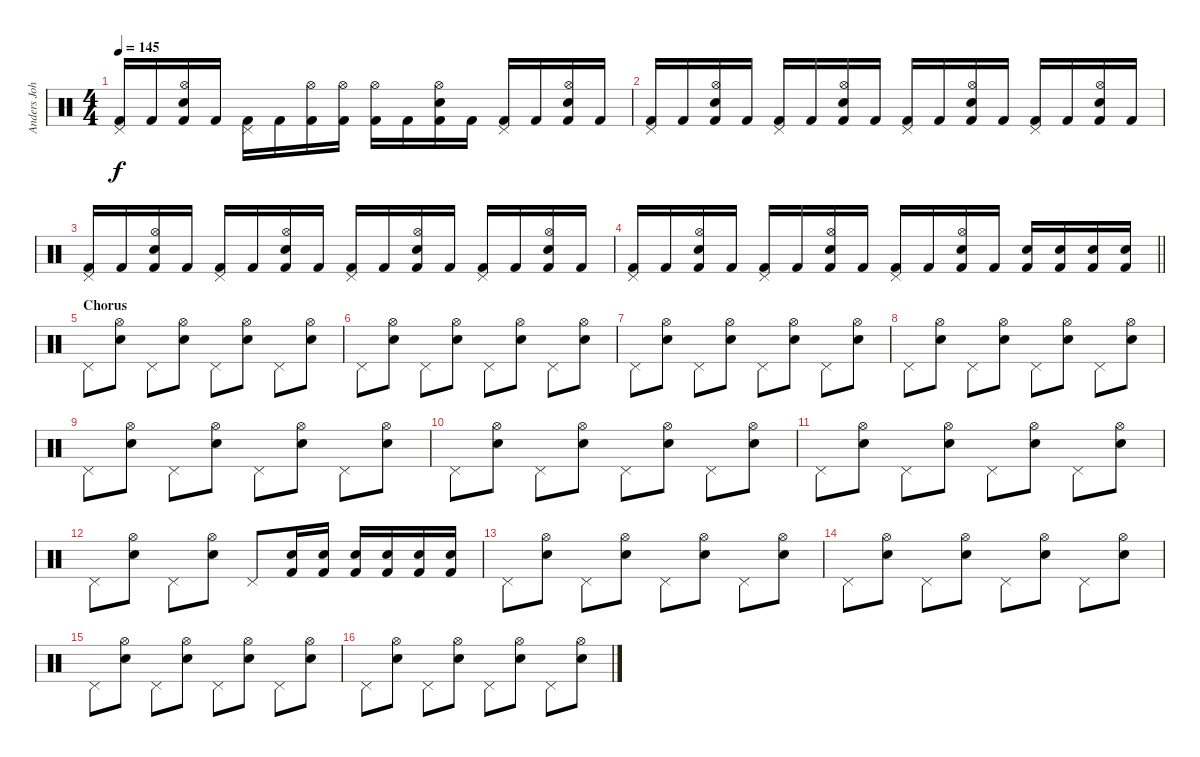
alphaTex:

\track ("Anders Johansson (Drums)" "Anders Joh") {instrument percussion}
\staff {score}
\articulation defaults
\ts (4 4)
\tempo 145
\clef neutral
\ks c
("Kick (hit) 2" "Pedal Hi-Hat (hit)").16{dy f} "Kick (hit) 2".16 ("Kick (hit) 2" "Hi-Hat (open)" "Electric Snare (hit)").16 "Kick (hit) 2".16 ("Kick (hit) 2" "Pedal Hi-Hat (hit)").16 "Kick (hit) 2".16 ("Kick (hit) 2" "Hi-Hat (open)").16 ("Kick (hit) 2" "Hi-Hat (open)").16 ("Kick (hit) 2" "Hi-Hat (open)").16 "Kick (hit) 2".16 ("Kick (hit) 2" "Hi-Hat (open)" "Electric Snare (hit)").16 "Kick (hit) 2".16 ("Kick (hit) 2" "Pedal Hi-Hat (hit)").16 "Kick (hit) 2".16 ("Kick (hit) 2" "Hi-Hat (open)" "Electric Snare (hit)").16 "Kick (hit) 2".16 |
("Kick (hit) 2" "Pedal Hi-Hat (hit)").16 "Kick (hit) 2".16 ("Kick (hit) 2" "Hi-Hat (open)" "Electric Snare (hit)").16 "Kick (hit) 2".16 ("Kick (hit) 2" "Pedal Hi-Hat (hit)").16 "Kick (hit) 2".16 ("Kick (hit) 2" "Hi-Hat (open)" "Electric Snare (hit)").16 "Kick (hit) 2".16 ("Kick (hit) 2" "Pedal Hi-Hat (hit)").16 "Kick (hit) 2".16 ("Kick (hit) 2" "Hi-Hat (open)" "Electric Snare (hit)").16 "Kick (hit) 2".16 ("Kick (hit) 2" "Pedal Hi-Hat (hit)").16 "Kick (hit) 2".16 ("Kick (hit) 2" "Hi-Hat (open)" "Electric Snare (hit)").16 "Kick (hit) 2".16 |
("Kick (hit) 2" "Pedal Hi-Hat (hit)").16 "Kick (hit) 2".16 ("Kick (hit) 2" "Hi-Hat (open)" "Electric Snare (hit)").16 "Kick (hit) 2".16 ("Kick (hit) 2" "Pedal Hi-Hat (hit)").16 "Kick (hit) 2".16 ("Kick (hit) 2" "Hi-Hat (open)" "Electric Snare (hit)").16 "Kick (hit) 2".16 ("Kick (hit) 2" "Pedal Hi-Hat (hit)").16 "Kick (hit) 2".16 ("Kick (hit) 2" "Hi-Hat (open)" "Electric Snare (hit)").16 "Kick (hit) 2".16 ("Kick (hit) 2" "Pedal Hi-Hat (hit)").16 "Kick (hit) 2".16 ("Kick (hit) 2" "Hi-Hat (open)" "Electric Snare (hit)").16 "Kick (hit) 2".16 |
\barLineRight lightlight
("Kick (hit) 2" "Pedal Hi-Hat (hit)").16 "Kick (hit) 2".16 ("Kick (hit) 2" "Hi-Hat (open)" "Electric Snare (hit)").16 "Kick (hit) 2".16 ("Kick (hit) 2" "Pedal Hi-Hat (hit)").16 "Kick (hit) 2".16 ("Kick (hit) 2" "Hi-Hat (open)" "Electric Snare (hit)").16 "Kick (hit) 2".16 ("Kick (hit) 2" "Pedal Hi-Hat (hit)").16 "Kick (hit) 2".16 ("Kick (hit) 2" "Hi-Hat (open)" "Electric Snare (hit)").16 "Kick (hit) 2".16 ("Kick (hit) 2" "Electric Snare (hit)").16 ("Kick (hit) 2" "Electric Snare (hit)").16 ("Kick (hit) 2" "Electric Snare (hit)").16 ("Kick (hit) 2" "Electric Snare (hit)").16 |
\section ("" "Chorus")
"Pedal Hi-Hat (hit)".8 ("Hi-Hat (open)" "Electric Snare (hit)").8 "Pedal Hi-Hat (hit)".8 ("Hi-Hat (open)" "Electric Snare (hit)").8 "Pedal Hi-Hat (hit)".8 ("Hi-Hat (open)" "Electric Snare (hit)").8 "Pedal Hi-Hat (hit)".8 ("Hi-Hat (open)" "Electric Snare (hit)").8 |
"Pedal Hi-Hat (hit)".8 ("Hi-Hat (open)" "Electric Snare (hit)").8 "Pedal Hi-Hat (hit)".8 ("Hi-Hat (open)" "Electric Snare (hit)").8 "Pedal Hi-Hat (hit)".8 ("Hi-Hat (open)" "Electric Snare (hit)").8 "Pedal Hi-Hat (hit)".8 ("Hi-Hat (open)" "Electric Snare (hit)").8 |
"Pedal Hi-Hat (hit)".8 ("Hi-Hat (open)" "Electric Snare (hit)").8 "Pedal Hi-Hat (hit)".8 ("Hi-Hat (open)" "Electric Snare (hit)").8 "Pedal Hi-Hat (hit)".8 ("Hi-Hat (open)" "Electric Snare (hit)").8 "Pedal Hi-Hat (hit)".8 ("Hi-Hat (open)" "Electric Snare (hit)").8 |
"Pedal Hi-Hat (hit)".8 ("Hi-Hat (open)" "Electric Snare (hit)").8 "Pedal Hi-Hat (hit)".8 ("Hi-Hat (open)" "Electric Snare (hit)").8 "Pedal Hi-Hat (hit)".8 ("Hi-Hat (open)" "Electric Snare (hit)").8 "Pedal Hi-Hat (hit)".8 ("Hi-Hat (open)" "Electric Snare (hit)").8 |
"Pedal Hi-Hat (hit)".8 ("Hi-Hat (open)" "Electric Snare (hit)").8 "Pedal Hi-Hat (hit)".8 ("Hi-Hat (open)" "Electric Snare (hit)").8 "Pedal Hi-Hat (hit)".8 ("Hi-Hat (open)" "Electric Snare (hit)").8 "Pedal Hi-Hat (hit)".8 ("Hi-Hat (open)" "Electric Snare (hit)").8 |
"Pedal Hi-Hat (hit)".8 ("Hi-Hat (open)" "Electric Snare (hit)").8 "Pedal Hi-Hat (hit)".8 ("Hi-Hat (open)" "Electric Snare (hit)").8 "Pedal Hi-Hat (hit)".8 ("Hi-Hat (open)" "Electric Snare (hit)").8 "Pedal Hi-Hat (hit)".8 ("Hi-Hat (open)" "Electric Snare (hit)").8 |
"Pedal Hi-Hat (hit)".8 ("Hi-Hat (open)" "Electric Snare (hit)").8 "Pedal Hi-Hat (hit)".8 ("Hi-Hat (open)" "Electric Snare (hit)").8 "Pedal Hi-Hat (hit)".8 ("Hi-Hat (open)" "Electric Snare (hit)").8 "Pedal Hi-Hat (hit)".8 ("Hi-Hat (open)" "Electric Snare (hit)").8 |
"Pedal Hi-Hat (hit)".8 ("Hi-Hat (open)" "Electric Snare (hit)").8 "Pedal Hi-Hat (hit)".8 ("Hi-Hat (open)" "Electric Snare (hit)").8 "Pedal Hi-Hat (hit)".8 ("Kick (hit) 2" "Electric Snare (hit)").16 ("Kick (hit) 2" "Electric Snare (hit)").16 ("Kick (hit) 2" "Electric Snare (hit)").16 ("Kick (hit) 2" "Electric Snare (hit)").16 ("Kick (hit) 2" "Electric Snare (hit)").16 ("Kick (hit) 2" "Electric Snare (hit)").16 |
"Pedal Hi-Hat (hit)".8 ("Hi-Hat (open)" "Electric Snare (hit)").8 "Pedal Hi-Hat (hit)".8 ("Hi-Hat (open)" "Electric Snare (hit)").8 "Pedal Hi-Hat (hit)".8 ("Hi-Hat (open)" "Electric Snare (hit)").8 "Pedal Hi-Hat (hit)".8 ("Hi-Hat (open)" "Electric Snare (hit)").8 |
"Pedal Hi-Hat (hit)".8 ("Hi-Hat (open)" "Electric Snare (hit)").8 "Pedal Hi-Hat (hit)".8 ("Hi-Hat (open)" "Electric Snare (hit)").8 "Pedal Hi-Hat (hit)".8 ("Hi-Hat (open)" "Electric Snare (hit)").8 "Pedal Hi-Hat (hit)".8 ("Hi-Hat (open)" "Electric Snare (hit)").8 |
"Pedal Hi-Hat (hit)".8 ("Hi-Hat (open)" "Electric Snare (hit)").8 "Pedal Hi-Hat (hit)".8 ("Hi-Hat (open)" "Electric Snare (hit)").8 "Pedal Hi-Hat (hit)".8 ("Hi-Hat (open)" "Electric Snare (hit)").8 "Pedal Hi-Hat (hit)".8 ("Hi-Hat (open)" "Electric Snare (hit)").8 |
"Pedal Hi-Hat (hit)".8 ("Hi-Hat (open)" "Electric Snare (hit)").8 "Pedal Hi-Hat (hit)".8 ("Hi-Hat (open)" "Electric Snare (hit)").8 "Pedal Hi-Hat (hit)".8 ("Hi-Hat (open)" "Electric Snare (hit)").8 "Pedal Hi-Hat (hit)".8 ("Hi-Hat (open)" "Electric Snare (hit)").8
